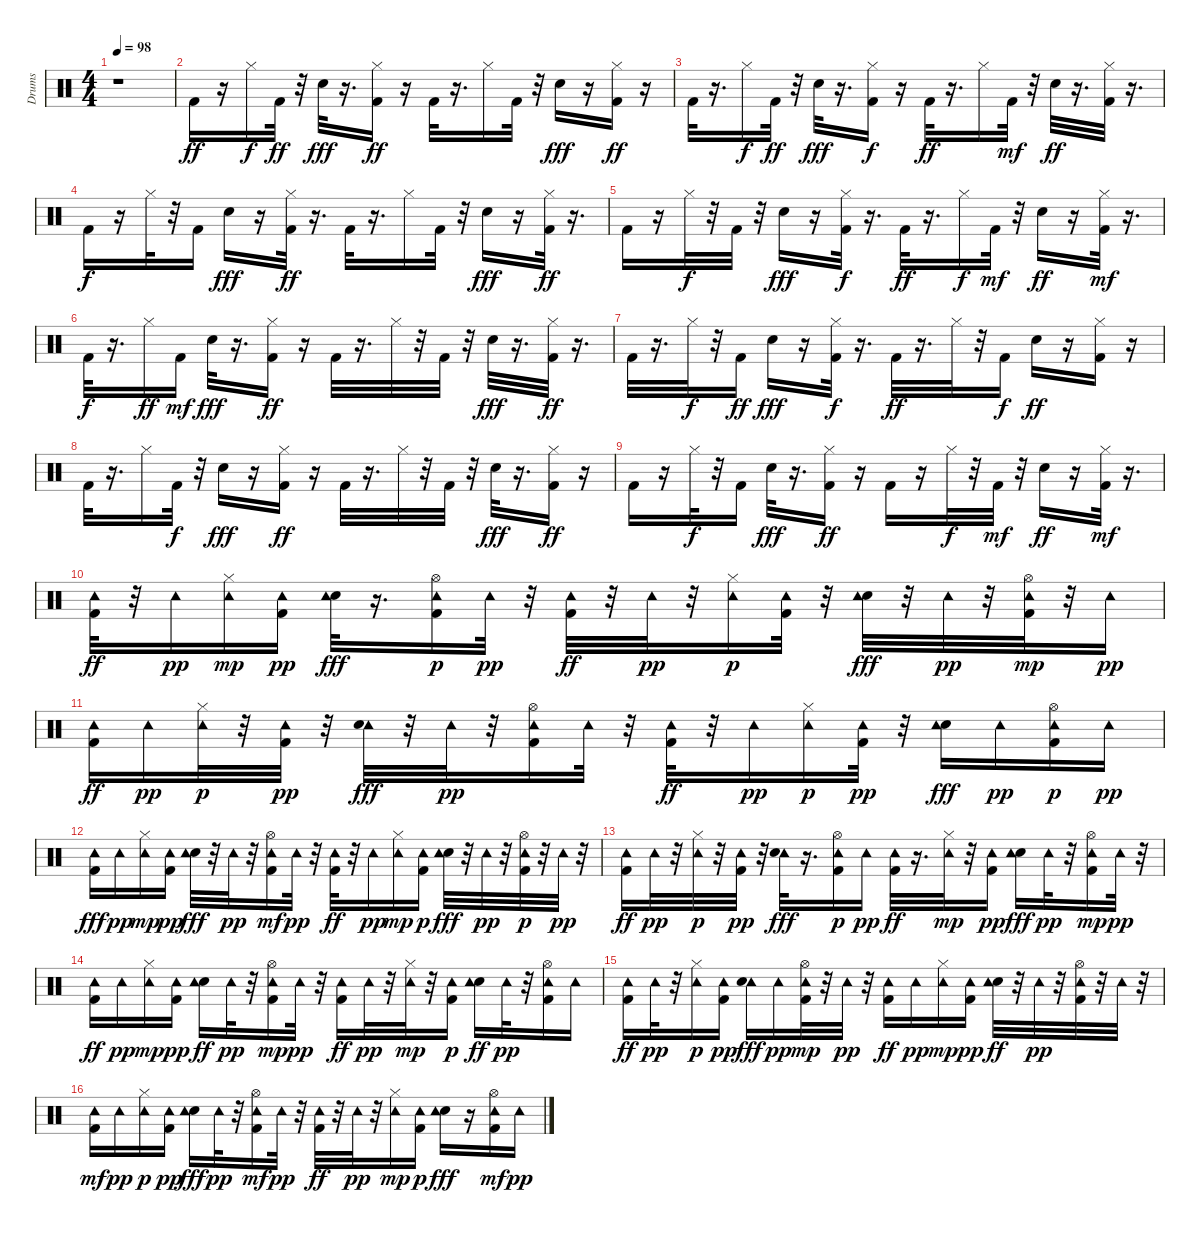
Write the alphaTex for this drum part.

\track ("Drums" "Drums") {instrument percussion}
\staff {score}
\articulation defaults
\ts (4 4)
\tempo 98
\clef neutral
\ks c
r.1{dy ff} |
"Kick (hit) 2".16 r.16 "Hi-Hat (closed)".16{dy f} "Kick (hit) 2".32{dy ff} r.32 "Snare (hit) 2".32{dy fff} r.16{d} ("Hi-Hat (closed)" "Kick (hit) 2").16{dy ff} r.16 "Kick (hit) 2".32 r.16{d} "Hi-Hat (closed)".16 "Kick (hit) 2".32 r.32 "Snare (hit) 2".16{dy fff} r.16 ("Kick (hit) 2" "Hi-Hat (closed)").16{dy ff} r.16 |
"Kick (hit) 2".32 r.16{d} "Hi-Hat (closed)".16{dy f} "Kick (hit) 2".32{dy ff} r.32 "Snare (hit) 2".32{dy fff} r.16{d} ("Hi-Hat (closed)" "Kick (hit) 2").16{dy f} r.16 "Kick (hit) 2".32{dy ff} r.16{d} "Hi-Hat (closed)".16 "Kick (hit) 2".32{dy mf} r.32 "Snare (hit) 2".32{dy ff} r.16{d} ("Hi-Hat (closed)" "Kick (hit) 2").32 r.16{d} |
"Kick (hit) 2".16{dy f} r.16 "Hi-Hat (closed)".32 r.32 "Kick (hit) 2".16 "Snare (hit) 2".16{dy fff} r.16 ("Hi-Hat (closed)" "Kick (hit) 2").32{dy ff} r.16{d} "Kick (hit) 2".32 r.16{d} "Hi-Hat (closed)".16 "Kick (hit) 2".32 r.32 "Snare (hit) 2".16{dy fff} r.16 ("Kick (hit) 2" "Hi-Hat (closed)").32{dy ff} r.16{d} |
"Kick (hit) 2".16 r.16 "Hi-Hat (closed)".32{dy f} r.32 "Kick (hit) 2".32 r.32 "Snare (hit) 2".16{dy fff} r.16 ("Hi-Hat (closed)" "Kick (hit) 2").32{dy f} r.16{d} "Kick (hit) 2".32{dy ff} r.16{d} "Hi-Hat (closed)".16{dy f} "Kick (hit) 2".32{dy mf} r.32 "Snare (hit) 2".16{dy ff} r.16 ("Hi-Hat (closed)" "Kick (hit) 2").32{dy mf} r.16{d} |
"Kick (hit) 2".32{dy f} r.16{d} "Hi-Hat (closed)".16{dy ff} "Kick (hit) 2".16{dy mf} "Snare (hit) 2".32{dy fff} r.16{d} ("Hi-Hat (closed)" "Kick (hit) 2").16{dy ff} r.16 "Kick (hit) 2".32 r.16{d} "Hi-Hat (closed)".32 r.32 "Kick (hit) 2".32 r.32 "Snare (hit) 2".32{dy fff} r.16{d} ("Kick (hit) 2" "Hi-Hat (closed)").32{dy ff} r.16{d} |
"Kick (hit) 2".32 r.16{d} "Hi-Hat (closed)".32{dy f} r.32 "Kick (hit) 2".16{dy ff} "Snare (hit) 2".16{dy fff} r.16 ("Hi-Hat (closed)" "Kick (hit) 2").32{dy f} r.16{d} "Kick (hit) 2".32{dy ff} r.16{d} "Hi-Hat (closed)".32 r.32 "Kick (hit) 2".16{dy f} "Snare (hit) 2".16{dy ff} r.16 ("Hi-Hat (closed)" "Kick (hit) 2").16 r.16 |
"Kick (hit) 2".32 r.16{d} "Hi-Hat (closed)".16 "Kick (hit) 2".32{dy f} r.32 "Snare (hit) 2".16{dy fff} r.16 ("Hi-Hat (closed)" "Kick (hit) 2").16{dy ff} r.16 "Kick (hit) 2".32 r.16{d} "Hi-Hat (closed)".32 r.32 "Kick (hit) 2".32 r.32 "Snare (hit) 2".32{dy fff} r.16{d} ("Kick (hit) 2" "Hi-Hat (closed)").16{dy ff} r.16 |
"Kick (hit) 2".16 r.16 "Hi-Hat (closed)".32{dy f} r.32 "Kick (hit) 2".16 "Snare (hit) 2".32{dy fff} r.16{d} ("Hi-Hat (closed)" "Kick (hit) 2").16{dy ff} r.16 "Kick (hit) 2".16 r.16 "Hi-Hat (closed)".32{dy f} r.32 "Kick (hit) 2".32{dy mf} r.32 "Snare (hit) 2".16{dy ff} r.16 ("Hi-Hat (closed)" "Kick (hit) 2").32{dy mf} r.16{d} |
("Tambourine (hit)" "Kick (hit) 2").32{dy ff} r.32 "Tambourine (hit)".16{dy pp} ("Hi-Hat (closed)" "Tambourine (hit)").16{dy mp} ("Kick (hit) 2" "Tambourine (hit)").16{dy pp} ("Snare (hit) 2" "Tambourine (hit)").32{dy fff} r.16{d} ("Kick (hit) 2" "Tambourine (hit)" "Hi-Hat (open)").16{dy p} "Tambourine (hit)".32{dy pp} r.32 ("Tambourine (hit)" "Kick (hit) 2").32{dy ff} r.32 "Tambourine (hit)".32{dy pp} r.32 ("Hi-Hat (closed)" "Tambourine (hit)").16{dy p} ("Kick (hit) 2" "Tambourine (hit)").32 r.32 ("Snare (hit) 2" "Tambourine (hit)").32{dy fff} r.32 "Tambourine (hit)".32{dy pp} r.32 ("Kick (hit) 2" "Hi-Hat (open)" "Tambourine (hit)").32{dy mp} r.32 "Tambourine (hit)".16{dy pp} |
("Tambourine (hit)" "Kick (hit) 2").16{dy ff} "Tambourine (hit)".16{dy pp} ("Hi-Hat (closed)" "Tambourine (hit)").32{dy p} r.32 ("Kick (hit) 2" "Tambourine (hit)").32{dy pp} r.32 ("Tambourine (hit)" "Snare (hit) 2").32{dy fff} r.32 "Tambourine (hit)".32{dy pp} r.32 ("Kick (hit) 2" "Hi-Hat (open)" "Tambourine (hit)").16 "Tambourine (hit)".32 r.32 ("Tambourine (hit)" "Kick (hit) 2").32{dy ff} r.32 "Tambourine (hit)".16{dy pp} ("Hi-Hat (closed)" "Tambourine (hit)").16{dy p} ("Kick (hit) 2" "Tambourine (hit)").32{dy pp} r.32 ("Snare (hit) 2" "Tambourine (hit)").16{dy fff} "Tambourine (hit)".16{dy pp} ("Kick (hit) 2" "Hi-Hat (open)" "Tambourine (hit)").16{dy p} "Tambourine (hit)".16{dy pp} |
("Tambourine (hit)" "Kick (hit) 2").16{dy fff} "Tambourine (hit)".16{dy pp} ("Hi-Hat (closed)" "Tambourine (hit)").16{dy mp} ("Kick (hit) 2" "Tambourine (hit)").16{dy pp} ("Snare (hit) 2" "Tambourine (hit)").32{dy fff} r.32 "Tambourine (hit)".32{dy pp} r.32 ("Kick (hit) 2" "Tambourine (hit)" "Hi-Hat (open)").16{dy mf} "Tambourine (hit)".32{dy pp} r.32 ("Tambourine (hit)" "Kick (hit) 2").32{dy ff} r.32 "Tambourine (hit)".16{dy pp} ("Hi-Hat (closed)" "Tambourine (hit)").16{dy mp} ("Kick (hit) 2" "Tambourine (hit)").16{dy p} ("Snare (hit) 2" "Tambourine (hit)").32{dy fff} r.32 "Tambourine (hit)".32{dy pp} r.32 ("Kick (hit) 2" "Hi-Hat (open)" "Tambourine (hit)").32{dy p} r.32 "Tambourine (hit)".32{dy pp} r.32 |
("Tambourine (hit)" "Kick (hit) 2").16{dy ff} "Tambourine (hit)".32{dy pp} r.32 ("Hi-Hat (closed)" "Tambourine (hit)").32{dy p} r.32 ("Kick (hit) 2" "Tambourine (hit)").32{dy pp} r.32 ("Tambourine (hit)" "Snare (hit) 2").32{dy fff} r.16{d} ("Kick (hit) 2" "Hi-Hat (open)" "Tambourine (hit)").16{dy p} "Tambourine (hit)".16{dy pp} ("Tambourine (hit)" "Kick (hit) 2").32{dy ff} r.16{d} ("Hi-Hat (closed)" "Tambourine (hit)").32{dy mp} r.32 ("Kick (hit) 2" "Tambourine (hit)").16{dy pp} ("Snare (hit) 2" "Tambourine (hit)").16{dy fff} "Tambourine (hit)".32{dy pp} r.32 ("Kick (hit) 2" "Hi-Hat (open)" "Tambourine (hit)").16{dy mp} "Tambourine (hit)".32{dy pp} r.32 |
("Tambourine (hit)" "Kick (hit) 2").16{dy ff} "Tambourine (hit)".16{dy pp} ("Hi-Hat (closed)" "Tambourine (hit)").16{dy mp} ("Kick (hit) 2" "Tambourine (hit)").16{dy pp} ("Snare (hit) 2" "Tambourine (hit)").16{dy ff} "Tambourine (hit)".32{dy pp} r.32 ("Kick (hit) 2" "Tambourine (hit)" "Hi-Hat (open)").16{dy mp} "Tambourine (hit)".32{dy pp} r.32 ("Tambourine (hit)" "Kick (hit) 2").16{dy ff} "Tambourine (hit)".32{dy pp} r.32 ("Hi-Hat (closed)" "Tambourine (hit)").32{dy mp} r.32 ("Kick (hit) 2" "Tambourine (hit)").16{dy p} ("Snare (hit) 2" "Tambourine (hit)").16{dy ff} "Tambourine (hit)".32{dy pp} r.32 ("Kick (hit) 2" "Tambourine (hit)" "Hi-Hat (open)").16 "Tambourine (hit)".16 |
("Tambourine (hit)" "Kick (hit) 2").16{dy ff} "Tambourine (hit)".32{dy pp} r.32 ("Hi-Hat (closed)" "Tambourine (hit)").16{dy p} ("Kick (hit) 2" "Tambourine (hit)").16{dy pp} ("Tambourine (hit)" "Snare (hit) 2").16{dy fff} "Tambourine (hit)".16{dy pp} ("Kick (hit) 2" "Tambourine (hit)" "Hi-Hat (open)").32{dy mp} r.32 "Tambourine (hit)".32{dy pp} r.32 ("Tambourine (hit)" "Kick (hit) 2").16{dy ff} "Tambourine (hit)".16{dy pp} ("Hi-Hat (closed)" "Tambourine (hit)").16{dy mp} ("Kick (hit) 2" "Tambourine (hit)").16{dy pp} ("Snare (hit) 2" "Tambourine (hit)").32{dy ff} r.32 "Tambourine (hit)".32{dy pp} r.32 ("Kick (hit) 2" "Hi-Hat (open)" "Tambourine (hit)").32 r.32 "Tambourine (hit)".32 r.32 |
("Tambourine (hit)" "Kick (hit) 2").16{dy mf} "Tambourine (hit)".16{dy pp} ("Hi-Hat (closed)" "Tambourine (hit)").16{dy p} ("Kick (hit) 2" "Tambourine (hit)").16{dy pp} ("Snare (hit) 2" "Tambourine (hit)").16{dy fff} "Tambourine (hit)".32{dy pp} r.32 ("Kick (hit) 2" "Tambourine (hit)" "Hi-Hat (open)").16{dy mf} "Tambourine (hit)".32{dy pp} r.32 ("Tambourine (hit)" "Kick (hit) 2").32{dy ff} r.32 "Tambourine (hit)".32{dy pp} r.32 ("Hi-Hat (closed)" "Tambourine (hit)").16{dy mp} ("Kick (hit) 2" "Tambourine (hit)").16{dy p} ("Snare (hit) 2" "Tambourine (hit)").16{dy fff} r.16 ("Kick (hit) 2" "Tambourine (hit)" "Hi-Hat (open)").16{dy mf} "Tambourine (hit)".16{dy pp}
